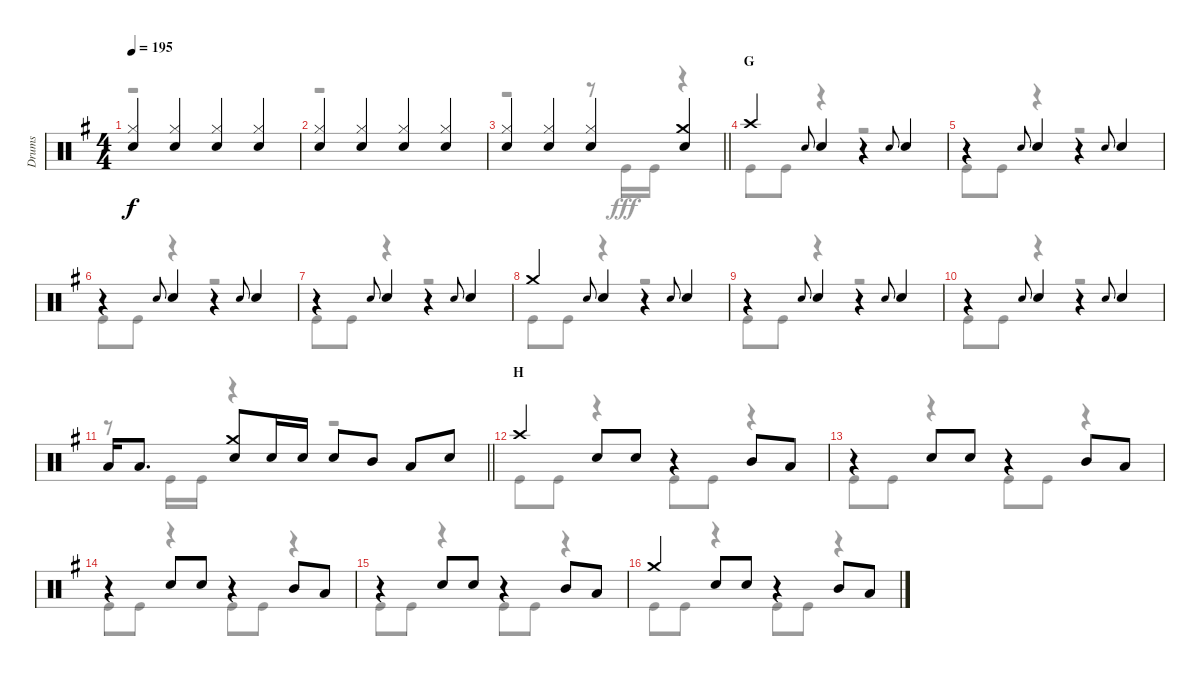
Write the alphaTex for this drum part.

\track ("Drums" "Drums") {instrument percussion}
\staff {score}
\articulation defaults
\voice
\ts (4 4)
\tempo 195
\clef neutral
\ks g
("Hi-Hat (closed)" "Snare (hit) 2").4{dy f} ("Hi-Hat (closed)" "Snare (hit) 2").4 ("Hi-Hat (closed)" "Snare (hit) 2").4 ("Hi-Hat (closed)" "Snare (hit) 2").4 |
("Hi-Hat (closed)" "Snare (hit) 2").4 ("Hi-Hat (closed)" "Snare (hit) 2").4 ("Hi-Hat (closed)" "Snare (hit) 2").4 ("Hi-Hat (closed)" "Snare (hit) 2").4 |
\barLineRight lightlight
("Hi-Hat (closed)" "Snare (hit) 2").4 ("Hi-Hat (closed)" "Snare (hit) 2").4 ("Hi-Hat (closed)" "Snare (hit) 2").4 ("Crash medium (hit)" "Snare (hit) 2").4 |
\section ("" "G")
"Crash high (hit)".4 "Snare (hit) 2".8{gr onbeat} "Snare (hit) 2".4 r.4 "Snare (hit) 2".8{gr onbeat} "Snare (hit) 2".4 |
r.4 "Snare (hit) 2".8{gr onbeat} "Snare (hit) 2".4 r.4 "Snare (hit) 2".8{gr onbeat} "Snare (hit) 2".4 |
r.4 "Snare (hit) 2".8{gr onbeat} "Snare (hit) 2".4 r.4 "Snare (hit) 2".8{gr onbeat} "Snare (hit) 2".4 |
r.4 "Snare (hit) 2".8{gr onbeat} "Snare (hit) 2".4 r.4 "Snare (hit) 2".8{gr onbeat} "Snare (hit) 2".4 |
"Crash medium (hit)".4 "Snare (hit) 2".8{gr onbeat} "Snare (hit) 2".4 r.4 "Snare (hit) 2".8{gr onbeat} "Snare (hit) 2".4 |
r.4 "Snare (hit) 2".8{gr onbeat} "Snare (hit) 2".4 r.4 "Snare (hit) 2".8{gr onbeat} "Snare (hit) 2".4 |
r.4 "Snare (hit) 2".8{gr onbeat} "Snare (hit) 2".4 r.4 "Snare (hit) 2".8{gr onbeat} "Snare (hit) 2".4 |
\barLineRight lightlight "Low Tom (hit)".16 "Low Tom (hit)".8{d}
("Crash medium (hit)" "Snare (hit) 2").8 "Snare (hit) 2".16 "Snare (hit) 2".16 "Snare (hit) 2".8 "Mid Tom (hit)".8 "Low Tom (hit)".8 "Snare (hit) 2".8 |
\section ("" "H")
"Crash high (hit)".4 "Snare (hit) 2".8 "Snare (hit) 2".8 r.4 "Mid Tom (hit)".8 "Low Tom (hit)".8 |
r.4 "Snare (hit) 2".8 "Snare (hit) 2".8 r.4 "Mid Tom (hit)".8 "Low Tom (hit)".8 |
r.4 "Snare (hit) 2".8 "Snare (hit) 2".8 r.4 "Mid Tom (hit)".8 "Low Tom (hit)".8 |
r.4 "Snare (hit) 2".8 "Snare (hit) 2".8 r.4 "Mid Tom (hit)".8 "Low Tom (hit)".8 |
"Crash medium (hit)".4 "Snare (hit) 2".8 "Snare (hit) 2".8 r.4 "Mid Tom (hit)".8 "Low Tom (hit)".8
\voice
\clef neutral
\ottava regular
\simile none
\ks g
r.1{dy fff} |
r.1 |
\barLineRight lightlight
r.2 r.8 "Kick (hit)".16 "Kick (hit)".16 r.4 |
"Kick (hit)".8 "Kick (hit)".8 r.4 r.2 |
"Kick (hit)".8 "Kick (hit)".8 r.4 r.2 |
"Kick (hit)".8 "Kick (hit)".8 r.4 r.2 |
"Kick (hit)".8 "Kick (hit)".8 r.4 r.2 |
"Kick (hit)".8 "Kick (hit)".8 r.4 r.2 |
"Kick (hit)".8 "Kick (hit)".8 r.4 r.2 |
"Kick (hit)".8 "Kick (hit)".8 r.4 r.2 |
\barLineRight lightlight
r.8 "Kick (hit)".16 "Kick (hit)".16 r.4 r.2 |
"Kick (hit)".8 "Kick (hit)".8 r.4 "Kick (hit)".8 "Kick (hit)".8 r.4 |
"Kick (hit)".8 "Kick (hit)".8 r.4 "Kick (hit)".8 "Kick (hit)".8 r.4 |
"Kick (hit)".8 "Kick (hit)".8 r.4 "Kick (hit)".8 "Kick (hit)".8 r.4 |
"Kick (hit)".8 "Kick (hit)".8 r.4 "Kick (hit)".8 "Kick (hit)".8 r.4 |
"Kick (hit)".8 "Kick (hit)".8 r.4 "Kick (hit)".8 "Kick (hit)".8 r.4
